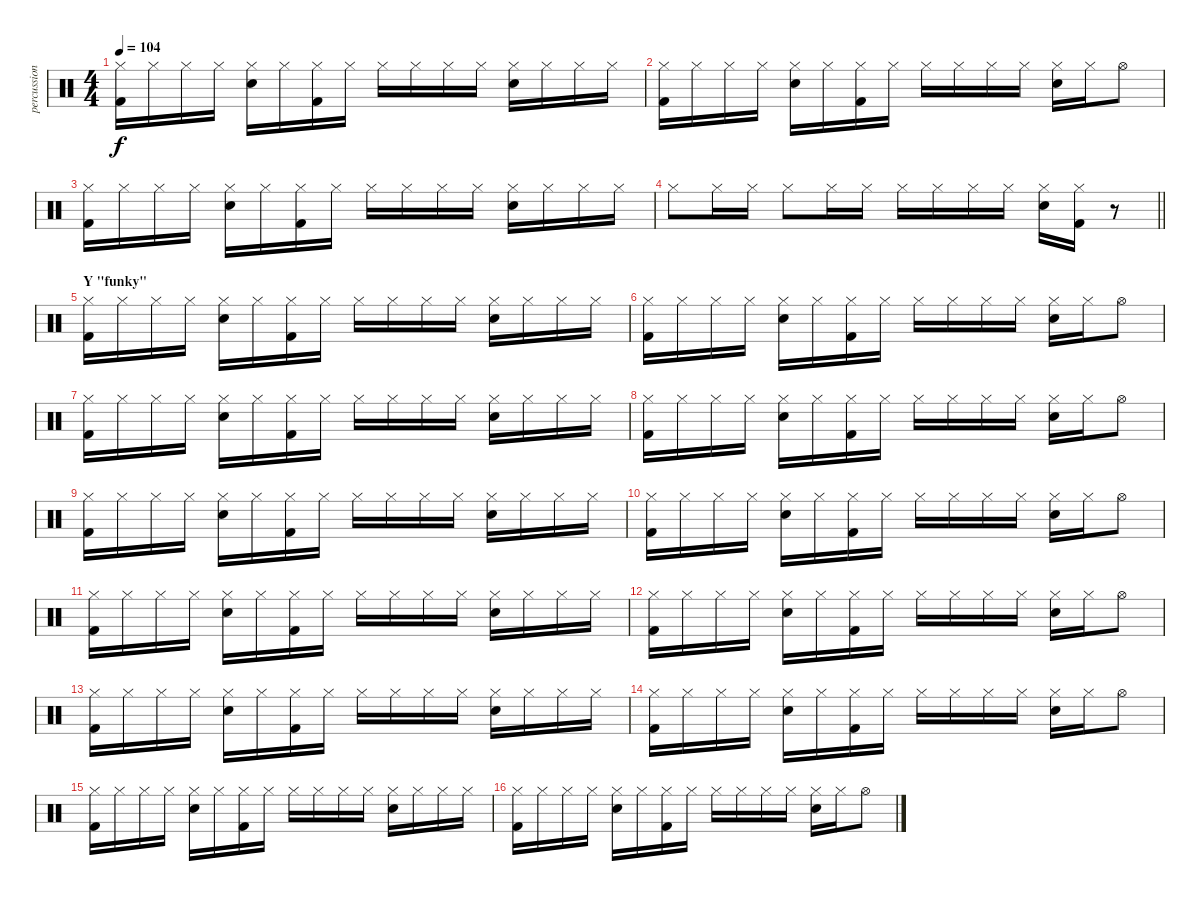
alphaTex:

\track ("percussion" "percussion") {instrument percussion}
\staff {score}
\articulation defaults
\ts (4 4)
\tempo 104
\clef neutral
\ks c
("Hi-Hat (closed)" "Kick (hit) 2").16{dy f} "Hi-Hat (closed)".16 "Hi-Hat (closed)".16 "Hi-Hat (closed)".16 ("Snare (hit) 2" "Hi-Hat (closed)").16 "Hi-Hat (closed)".16 ("Hi-Hat (closed)" "Kick (hit) 2").16 "Hi-Hat (closed)".16 "Hi-Hat (closed)".16 "Hi-Hat (closed)".16 "Hi-Hat (closed)".16 "Hi-Hat (closed)".16 ("Snare (hit) 2" "Hi-Hat (closed)").16 "Hi-Hat (closed)".16 "Hi-Hat (closed)".16 "Hi-Hat (closed)".16 |
("Hi-Hat (closed)" "Kick (hit) 2").16 "Hi-Hat (closed)".16 "Hi-Hat (closed)".16 "Hi-Hat (closed)".16 ("Snare (hit) 2" "Hi-Hat (closed)").16 "Hi-Hat (closed)".16 ("Hi-Hat (closed)" "Kick (hit) 2").16 "Hi-Hat (closed)".16 "Hi-Hat (closed)".16 "Hi-Hat (closed)".16 "Hi-Hat (closed)".16 "Hi-Hat (closed)".16 ("Snare (hit) 2" "Hi-Hat (closed)").16 "Hi-Hat (closed)".16 "Hi-Hat (open)".8 |
("Hi-Hat (closed)" "Kick (hit) 2").16 "Hi-Hat (closed)".16 "Hi-Hat (closed)".16 "Hi-Hat (closed)".16 ("Snare (hit) 2" "Hi-Hat (closed)").16 "Hi-Hat (closed)".16 ("Hi-Hat (closed)" "Kick (hit) 2").16 "Hi-Hat (closed)".16 "Hi-Hat (closed)".16 "Hi-Hat (closed)".16 "Hi-Hat (closed)".16 "Hi-Hat (closed)".16 ("Snare (hit) 2" "Hi-Hat (closed)").16 "Hi-Hat (closed)".16 "Hi-Hat (closed)".16 "Hi-Hat (closed)".16 |
\barLineRight lightlight "Hi-Hat (closed)".8 "Hi-Hat (closed)".16 "Hi-Hat (closed)".16 "Hi-Hat (closed)".8 "Hi-Hat (closed)".16 "Hi-Hat (closed)".16 "Hi-Hat (closed)".16 "Hi-Hat (closed)".16 "Hi-Hat (closed)".16 "Hi-Hat (closed)".16
("Snare (hit) 2" "Hi-Hat (closed)").16 ("Hi-Hat (closed)" "Kick (hit) 2").16 r.8 |
\section ("" "Y \"funky\"")
("Hi-Hat (closed)" "Kick (hit) 2").16 "Hi-Hat (closed)".16 "Hi-Hat (closed)".16 "Hi-Hat (closed)".16 ("Snare (hit) 2" "Hi-Hat (closed)").16 "Hi-Hat (closed)".16 ("Hi-Hat (closed)" "Kick (hit) 2").16 "Hi-Hat (closed)".16 "Hi-Hat (closed)".16 "Hi-Hat (closed)".16 "Hi-Hat (closed)".16 "Hi-Hat (closed)".16 ("Snare (hit) 2" "Hi-Hat (closed)").16 "Hi-Hat (closed)".16 "Hi-Hat (closed)".16 "Hi-Hat (closed)".16 |
("Hi-Hat (closed)" "Kick (hit) 2").16 "Hi-Hat (closed)".16 "Hi-Hat (closed)".16 "Hi-Hat (closed)".16 ("Snare (hit) 2" "Hi-Hat (closed)").16 "Hi-Hat (closed)".16 ("Hi-Hat (closed)" "Kick (hit) 2").16 "Hi-Hat (closed)".16 "Hi-Hat (closed)".16 "Hi-Hat (closed)".16 "Hi-Hat (closed)".16 "Hi-Hat (closed)".16 ("Snare (hit) 2" "Hi-Hat (closed)").16 "Hi-Hat (closed)".16 "Hi-Hat (open)".8 |
("Hi-Hat (closed)" "Kick (hit) 2").16 "Hi-Hat (closed)".16 "Hi-Hat (closed)".16 "Hi-Hat (closed)".16 ("Snare (hit) 2" "Hi-Hat (closed)").16 "Hi-Hat (closed)".16 ("Hi-Hat (closed)" "Kick (hit) 2").16 "Hi-Hat (closed)".16 "Hi-Hat (closed)".16 "Hi-Hat (closed)".16 "Hi-Hat (closed)".16 "Hi-Hat (closed)".16 ("Snare (hit) 2" "Hi-Hat (closed)").16 "Hi-Hat (closed)".16 "Hi-Hat (closed)".16 "Hi-Hat (closed)".16 |
("Hi-Hat (closed)" "Kick (hit) 2").16 "Hi-Hat (closed)".16 "Hi-Hat (closed)".16 "Hi-Hat (closed)".16 ("Snare (hit) 2" "Hi-Hat (closed)").16 "Hi-Hat (closed)".16 ("Hi-Hat (closed)" "Kick (hit) 2").16 "Hi-Hat (closed)".16 "Hi-Hat (closed)".16 "Hi-Hat (closed)".16 "Hi-Hat (closed)".16 "Hi-Hat (closed)".16 ("Snare (hit) 2" "Hi-Hat (closed)").16 "Hi-Hat (closed)".16 "Hi-Hat (open)".8 |
("Hi-Hat (closed)" "Kick (hit) 2").16 "Hi-Hat (closed)".16 "Hi-Hat (closed)".16 "Hi-Hat (closed)".16 ("Snare (hit) 2" "Hi-Hat (closed)").16 "Hi-Hat (closed)".16 ("Hi-Hat (closed)" "Kick (hit) 2").16 "Hi-Hat (closed)".16 "Hi-Hat (closed)".16 "Hi-Hat (closed)".16 "Hi-Hat (closed)".16 "Hi-Hat (closed)".16 ("Snare (hit) 2" "Hi-Hat (closed)").16 "Hi-Hat (closed)".16 "Hi-Hat (closed)".16 "Hi-Hat (closed)".16 |
("Hi-Hat (closed)" "Kick (hit) 2").16 "Hi-Hat (closed)".16 "Hi-Hat (closed)".16 "Hi-Hat (closed)".16 ("Snare (hit) 2" "Hi-Hat (closed)").16 "Hi-Hat (closed)".16 ("Hi-Hat (closed)" "Kick (hit) 2").16 "Hi-Hat (closed)".16 "Hi-Hat (closed)".16 "Hi-Hat (closed)".16 "Hi-Hat (closed)".16 "Hi-Hat (closed)".16 ("Snare (hit) 2" "Hi-Hat (closed)").16 "Hi-Hat (closed)".16 "Hi-Hat (open)".8 |
("Hi-Hat (closed)" "Kick (hit) 2").16 "Hi-Hat (closed)".16 "Hi-Hat (closed)".16 "Hi-Hat (closed)".16 ("Snare (hit) 2" "Hi-Hat (closed)").16 "Hi-Hat (closed)".16 ("Hi-Hat (closed)" "Kick (hit) 2").16 "Hi-Hat (closed)".16 "Hi-Hat (closed)".16 "Hi-Hat (closed)".16 "Hi-Hat (closed)".16 "Hi-Hat (closed)".16 ("Snare (hit) 2" "Hi-Hat (closed)").16 "Hi-Hat (closed)".16 "Hi-Hat (closed)".16 "Hi-Hat (closed)".16 |
("Hi-Hat (closed)" "Kick (hit) 2").16 "Hi-Hat (closed)".16 "Hi-Hat (closed)".16 "Hi-Hat (closed)".16 ("Snare (hit) 2" "Hi-Hat (closed)").16 "Hi-Hat (closed)".16 ("Hi-Hat (closed)" "Kick (hit) 2").16 "Hi-Hat (closed)".16 "Hi-Hat (closed)".16 "Hi-Hat (closed)".16 "Hi-Hat (closed)".16 "Hi-Hat (closed)".16 ("Snare (hit) 2" "Hi-Hat (closed)").16 "Hi-Hat (closed)".16 "Hi-Hat (open)".8 |
("Hi-Hat (closed)" "Kick (hit) 2").16 "Hi-Hat (closed)".16 "Hi-Hat (closed)".16 "Hi-Hat (closed)".16 ("Snare (hit) 2" "Hi-Hat (closed)").16 "Hi-Hat (closed)".16 ("Hi-Hat (closed)" "Kick (hit) 2").16 "Hi-Hat (closed)".16 "Hi-Hat (closed)".16 "Hi-Hat (closed)".16 "Hi-Hat (closed)".16 "Hi-Hat (closed)".16 ("Snare (hit) 2" "Hi-Hat (closed)").16 "Hi-Hat (closed)".16 "Hi-Hat (closed)".16 "Hi-Hat (closed)".16 |
("Hi-Hat (closed)" "Kick (hit) 2").16 "Hi-Hat (closed)".16 "Hi-Hat (closed)".16 "Hi-Hat (closed)".16 ("Snare (hit) 2" "Hi-Hat (closed)").16 "Hi-Hat (closed)".16 ("Hi-Hat (closed)" "Kick (hit) 2").16 "Hi-Hat (closed)".16 "Hi-Hat (closed)".16 "Hi-Hat (closed)".16 "Hi-Hat (closed)".16 "Hi-Hat (closed)".16 ("Snare (hit) 2" "Hi-Hat (closed)").16 "Hi-Hat (closed)".16 "Hi-Hat (open)".8 |
("Hi-Hat (closed)" "Kick (hit) 2").16 "Hi-Hat (closed)".16 "Hi-Hat (closed)".16 "Hi-Hat (closed)".16 ("Snare (hit) 2" "Hi-Hat (closed)").16 "Hi-Hat (closed)".16 ("Hi-Hat (closed)" "Kick (hit) 2").16 "Hi-Hat (closed)".16 "Hi-Hat (closed)".16 "Hi-Hat (closed)".16 "Hi-Hat (closed)".16 "Hi-Hat (closed)".16 ("Snare (hit) 2" "Hi-Hat (closed)").16 "Hi-Hat (closed)".16 "Hi-Hat (closed)".16 "Hi-Hat (closed)".16 |
("Hi-Hat (closed)" "Kick (hit) 2").16 "Hi-Hat (closed)".16 "Hi-Hat (closed)".16 "Hi-Hat (closed)".16 ("Snare (hit) 2" "Hi-Hat (closed)").16 "Hi-Hat (closed)".16 ("Hi-Hat (closed)" "Kick (hit) 2").16 "Hi-Hat (closed)".16 "Hi-Hat (closed)".16 "Hi-Hat (closed)".16 "Hi-Hat (closed)".16 "Hi-Hat (closed)".16 ("Snare (hit) 2" "Hi-Hat (closed)").16 "Hi-Hat (closed)".16 "Hi-Hat (open)".8
